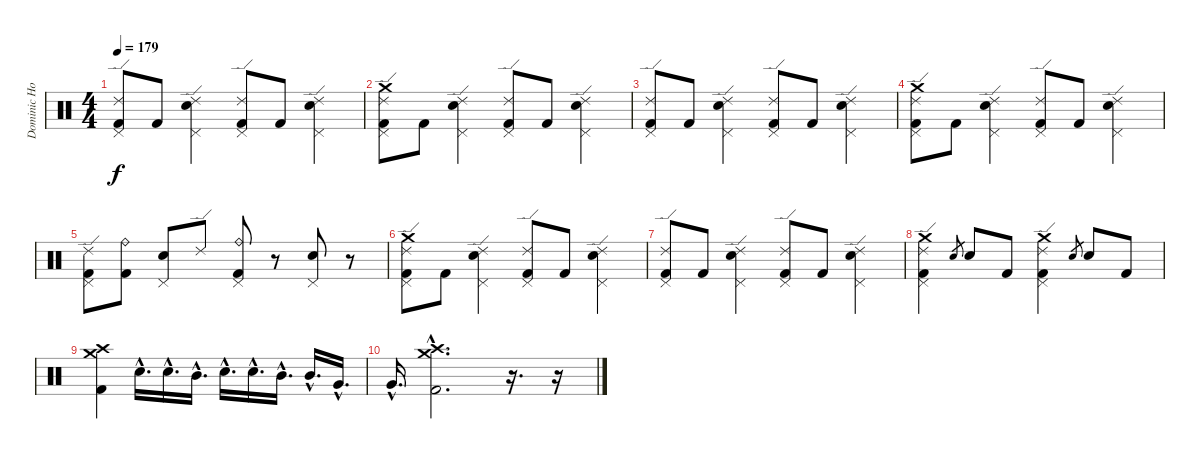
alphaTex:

\track ("Dominic Howard" "Dominic Ho") {instrument percussion}
\staff {score}
\articulation defaults
\ts (4 4)
\tempo 179
\clef neutral
\ks c
("Ride (edge) 2" "Pedal Hi-Hat (hit)" "Kick (hit) 2").8{dy f} "Kick (hit) 2".8 ("Ride (edge) 2" "Electric Snare (hit)" "Pedal Hi-Hat (hit)").4 ("Ride (edge) 2" "Pedal Hi-Hat (hit)" "Kick (hit) 2").8 "Kick (hit) 2".8 ("Ride (edge) 2" "Electric Snare (hit)" "Pedal Hi-Hat (hit)").4 |
("Crash medium (hit)" "Ride (edge) 2" "Pedal Hi-Hat (hit)" "Kick (hit) 2").8 "Kick (hit) 2".8 ("Ride (edge) 2" "Electric Snare (hit)" "Pedal Hi-Hat (hit)").4 ("Ride (edge) 2" "Pedal Hi-Hat (hit)" "Kick (hit) 2").8 "Kick (hit) 2".8 ("Ride (edge) 2" "Electric Snare (hit)" "Pedal Hi-Hat (hit)").4 |
("Ride (edge) 2" "Pedal Hi-Hat (hit)" "Kick (hit) 2").8 "Kick (hit) 2".8 ("Ride (edge) 2" "Electric Snare (hit)" "Pedal Hi-Hat (hit)").4 ("Ride (edge) 2" "Pedal Hi-Hat (hit)" "Kick (hit) 2").8 "Kick (hit) 2".8 ("Ride (edge) 2" "Electric Snare (hit)" "Pedal Hi-Hat (hit)").4 |
("Crash medium (hit)" "Ride (edge) 2" "Pedal Hi-Hat (hit)" "Kick (hit) 2").8 "Kick (hit) 2".8 ("Ride (edge) 2" "Electric Snare (hit)" "Pedal Hi-Hat (hit)").4 ("Ride (edge) 2" "Pedal Hi-Hat (hit)" "Kick (hit) 2").8 "Kick (hit) 2".8 ("Ride (edge) 2" "Electric Snare (hit)" "Pedal Hi-Hat (hit)").4 |
("Ride (edge) 2" "Pedal Hi-Hat (hit)" "Kick (hit) 2").8 ("Ride (bell)" "Kick (hit) 2").8 ("Electric Snare (hit)" "Pedal Hi-Hat (hit)").8 "Ride (edge) 2".8 ("Ride (bell)" "Pedal Hi-Hat (hit)" "Kick (hit) 2").8 r.8 ("Electric Snare (hit)" "Pedal Hi-Hat (hit)").8 r.8 |
("Crash medium (hit)" "Ride (edge) 2" "Pedal Hi-Hat (hit)" "Kick (hit) 2").8 "Kick (hit) 2".8 ("Ride (edge) 2" "Electric Snare (hit)" "Pedal Hi-Hat (hit)").4 ("Ride (edge) 2" "Pedal Hi-Hat (hit)" "Kick (hit) 2").8 "Kick (hit) 2".8 ("Ride (edge) 2" "Electric Snare (hit)" "Pedal Hi-Hat (hit)").4 |
("Ride (edge) 2" "Pedal Hi-Hat (hit)" "Kick (hit) 2").8 "Kick (hit) 2".8 ("Ride (edge) 2" "Electric Snare (hit)" "Pedal Hi-Hat (hit)").4 ("Ride (edge) 2" "Pedal Hi-Hat (hit)" "Kick (hit) 2").8 "Kick (hit) 2".8 ("Ride (edge) 2" "Electric Snare (hit)" "Pedal Hi-Hat (hit)").4 |
("Crash medium (hit)" "Ride (edge) 2" "Pedal Hi-Hat (hit)" "Kick (hit) 2").4 "Electric Snare (hit)".8{gr} "Electric Snare (hit)".8 "Kick (hit) 2".8 ("Crash medium (hit)" "Ride (edge) 2" "Pedal Hi-Hat (hit)" "Kick (hit) 2").4 "Electric Snare (hit)".8{gr} "Electric Snare (hit)".8 "Kick (hit) 2".8 |
("Crash medium (hit)" "Crash high (hit)" "Kick (hit) 2").4 "Electric Snare (hit)"{hac}.16{d} "Electric Snare (hit)"{hac}.16{d} "Mid Tom (hit)"{hac}.16{d} "Electric Snare (hit)"{hac}.16{d} "Electric Snare (hit)"{hac}.16{d} "Mid Tom (hit)"{hac}.16{d} "Mid Tom (hit)"{hac}.16{d} "Very Low Tom (hit)"{hac}.16{d} |
"Very Low Tom (hit)"{hac}.16{d} ("Crash medium (hit)"{hac} "Crash high (hit)"{hac} "Kick (hit) 2"{hac}).2{d} r.16{d} r.16
